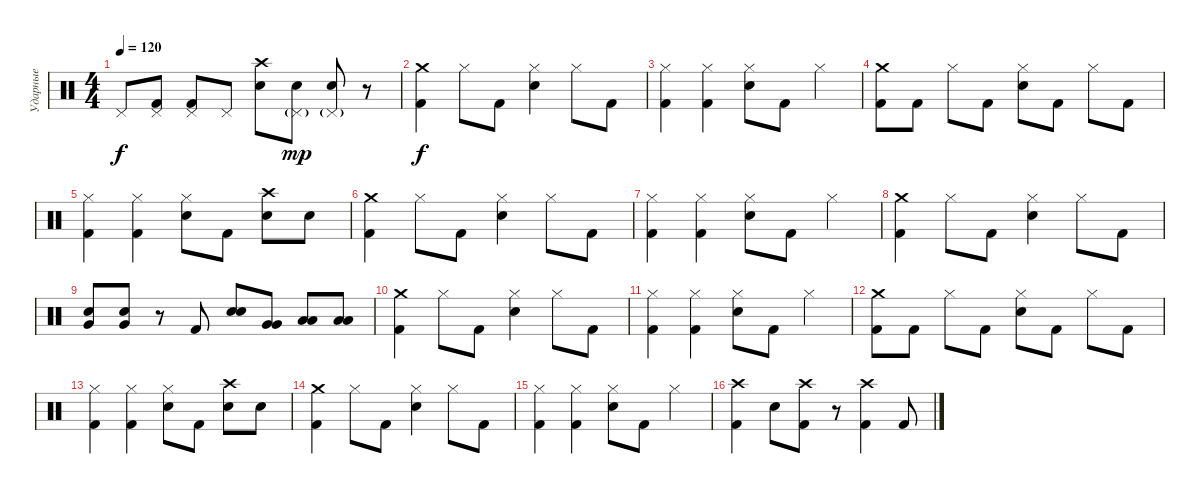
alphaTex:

\track ("Ударные" "Ударные") {instrument percussion}
\staff {score}
\articulation defaults
\ts (4 4)
\tempo 120
\clef neutral
\ks c "Pedal Hi-Hat (hit)".8{dy f}
("Pedal Hi-Hat (hit)" "Kick (hit) 2").8 ("Pedal Hi-Hat (hit)" "Kick (hit) 2").8 "Pedal Hi-Hat (hit)".8 ("Crash high (hit)" "Snare (hit) 2").8 ("Pedal Hi-Hat (hit)"{g} "Snare (hit) 2").8{dy mp} ("Pedal Hi-Hat (hit)"{g} "Snare (hit) 2").8 r.8 |
("Crash medium (hit)" "Kick (hit) 2").4{dy f} "Hi-Hat (closed)".8 "Kick (hit) 2".8 ("Hi-Hat (closed)" "Snare (hit) 2").4 "Hi-Hat (closed)".8 "Kick (hit) 2".8 |
("Hi-Hat (closed)" "Kick (hit) 2").4 ("Hi-Hat (closed)" "Kick (hit) 2").4 ("Hi-Hat (closed)" "Snare (hit) 2").8 "Kick (hit) 2".8 "Hi-Hat (closed)".4 |
("Crash medium (hit)" "Kick (hit) 2").8 "Kick (hit) 2".8 "Hi-Hat (closed)".8 "Kick (hit) 2".8 ("Hi-Hat (closed)" "Snare (hit) 2").8 "Kick (hit) 2".8 "Hi-Hat (closed)".8 "Kick (hit) 2".8 |
("Hi-Hat (closed)" "Kick (hit) 2").4 ("Hi-Hat (closed)" "Kick (hit) 2").4 ("Hi-Hat (closed)" "Snare (hit) 2").8 "Kick (hit) 2".8 ("Crash high (hit)" "Snare (hit) 2").8 "Snare (hit) 2".8 |
("Crash medium (hit)" "Kick (hit) 2").4 "Hi-Hat (closed)".8 "Kick (hit) 2".8 ("Hi-Hat (closed)" "Snare (hit) 2").4 "Hi-Hat (closed)".8 "Kick (hit) 2".8 |
("Hi-Hat (closed)" "Kick (hit) 2").4 ("Hi-Hat (closed)" "Kick (hit) 2").4 ("Hi-Hat (closed)" "Snare (hit) 2").8 "Kick (hit) 2".8 "Hi-Hat (closed)".4 |
("Crash medium (hit)" "Kick (hit) 2").4 "Hi-Hat (closed)".8 "Kick (hit) 2".8 ("Hi-Hat (closed)" "Snare (hit) 2").4 "Hi-Hat (closed)".8 "Kick (hit) 2".8 |
("Snare (hit) 2" "Very Low Tom (hit)").8 ("Snare (hit) 2" "Very Low Tom (hit)").8 r.8 "Kick (hit) 2".8 ("Snare (hit) 2" "Snare (hit) 2").8 ("Very Low Tom (hit)" "Very Low Tom (hit)").8 ("Low Floor Tom (hit)" "Low Floor Tom (hit)").8 ("Low Floor Tom (hit)" "Low Floor Tom (hit)").8 |
("Crash medium (hit)" "Kick (hit) 2").4 "Hi-Hat (closed)".8 "Kick (hit) 2".8 ("Hi-Hat (closed)" "Snare (hit) 2").4 "Hi-Hat (closed)".8 "Kick (hit) 2".8 |
("Hi-Hat (closed)" "Kick (hit) 2").4 ("Hi-Hat (closed)" "Kick (hit) 2").4 ("Hi-Hat (closed)" "Snare (hit) 2").8 "Kick (hit) 2".8 "Hi-Hat (closed)".4 |
("Crash medium (hit)" "Kick (hit) 2").8 "Kick (hit) 2".8 "Hi-Hat (closed)".8 "Kick (hit) 2".8 ("Hi-Hat (closed)" "Snare (hit) 2").8 "Kick (hit) 2".8 "Hi-Hat (closed)".8 "Kick (hit) 2".8 |
("Hi-Hat (closed)" "Kick (hit) 2").4 ("Hi-Hat (closed)" "Kick (hit) 2").4 ("Hi-Hat (closed)" "Snare (hit) 2").8 "Kick (hit) 2".8 ("Crash high (hit)" "Snare (hit) 2").8 "Snare (hit) 2".8 |
("Crash medium (hit)" "Kick (hit) 2").4 "Hi-Hat (closed)".8 "Kick (hit) 2".8 ("Hi-Hat (closed)" "Snare (hit) 2").4 "Hi-Hat (closed)".8 "Kick (hit) 2".8 |
("Hi-Hat (closed)" "Kick (hit) 2").4 ("Hi-Hat (closed)" "Kick (hit) 2").4 ("Hi-Hat (closed)" "Snare (hit) 2").8 "Kick (hit) 2".8 "Hi-Hat (closed)".4 |
("Crash high (hit)" "Kick (hit) 2").4 "Snare (hit) 2".8 ("Crash high (hit)" "Kick (hit) 2").8 r.8 ("Crash high (hit)" "Kick (hit) 2").4 "Kick (hit) 2".8
